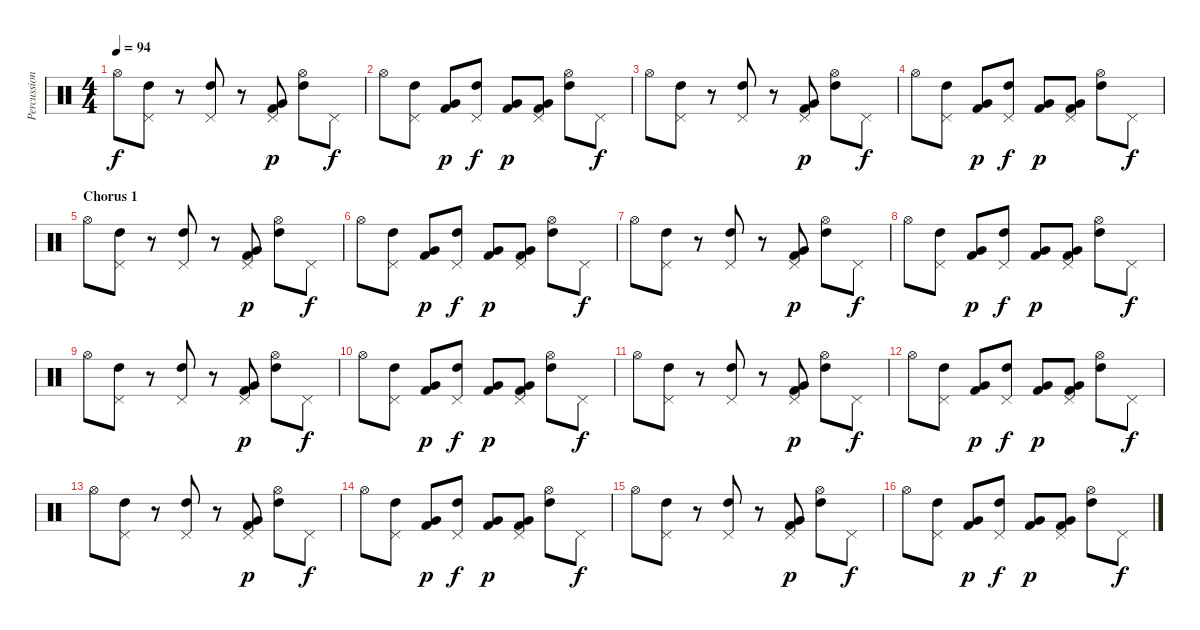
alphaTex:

\track ("Percussion" "Percussion") {instrument percussion}
\staff {score}
\articulation defaults
\ts (4 4)
\tempo 94
\clef neutral
\ks c "Hi-Hat (open)".8{dy f}
("Pedal Hi-Hat (hit)" "High Tom (hit)").8 r.8 ("Pedal Hi-Hat (hit)" "High Tom (hit)").8 r.8 ("Pedal Hi-Hat (hit)" "Very Low Tom (hit)" "Kick (hit) 2").8{dy p} ("Hi-Hat (open)" "High Tom (hit)").8 "Pedal Hi-Hat (hit)".8{dy f} |
"Hi-Hat (open)".8 ("Pedal Hi-Hat (hit)" "High Tom (hit)").8 ("Very Low Tom (hit)" "Kick (hit) 2").8{dy p} ("Pedal Hi-Hat (hit)" "High Tom (hit)").8{dy f} ("Very Low Tom (hit)" "Kick (hit) 2").8{dy p} ("Pedal Hi-Hat (hit)" "Very Low Tom (hit)" "Kick (hit) 2").8 ("Hi-Hat (open)" "High Tom (hit)").8 "Pedal Hi-Hat (hit)".8{dy f} |
"Hi-Hat (open)".8 ("Pedal Hi-Hat (hit)" "High Tom (hit)").8 r.8 ("Pedal Hi-Hat (hit)" "High Tom (hit)").8 r.8 ("Pedal Hi-Hat (hit)" "Very Low Tom (hit)" "Kick (hit) 2").8{dy p} ("Hi-Hat (open)" "High Tom (hit)").8 "Pedal Hi-Hat (hit)".8{dy f} |
"Hi-Hat (open)".8 ("Pedal Hi-Hat (hit)" "High Tom (hit)").8 ("Very Low Tom (hit)" "Kick (hit) 2").8{dy p} ("Pedal Hi-Hat (hit)" "High Tom (hit)").8{dy f} ("Very Low Tom (hit)" "Kick (hit) 2").8{dy p} ("Pedal Hi-Hat (hit)" "Very Low Tom (hit)" "Kick (hit) 2").8 ("Hi-Hat (open)" "High Tom (hit)").8 "Pedal Hi-Hat (hit)".8{dy f} |
\section ("" "Chorus 1")
"Hi-Hat (open)".8 ("Pedal Hi-Hat (hit)" "High Tom (hit)").8 r.8 ("Pedal Hi-Hat (hit)" "High Tom (hit)").8 r.8 ("Pedal Hi-Hat (hit)" "Very Low Tom (hit)" "Kick (hit) 2").8{dy p} ("Hi-Hat (open)" "High Tom (hit)").8 "Pedal Hi-Hat (hit)".8{dy f} |
"Hi-Hat (open)".8 ("Pedal Hi-Hat (hit)" "High Tom (hit)").8 ("Very Low Tom (hit)" "Kick (hit) 2").8{dy p} ("Pedal Hi-Hat (hit)" "High Tom (hit)").8{dy f} ("Very Low Tom (hit)" "Kick (hit) 2").8{dy p} ("Pedal Hi-Hat (hit)" "Very Low Tom (hit)" "Kick (hit) 2").8 ("Hi-Hat (open)" "High Tom (hit)").8 "Pedal Hi-Hat (hit)".8{dy f} |
"Hi-Hat (open)".8 ("Pedal Hi-Hat (hit)" "High Tom (hit)").8 r.8 ("Pedal Hi-Hat (hit)" "High Tom (hit)").8 r.8 ("Pedal Hi-Hat (hit)" "Very Low Tom (hit)" "Kick (hit) 2").8{dy p} ("Hi-Hat (open)" "High Tom (hit)").8 "Pedal Hi-Hat (hit)".8{dy f} |
"Hi-Hat (open)".8 ("Pedal Hi-Hat (hit)" "High Tom (hit)").8 ("Very Low Tom (hit)" "Kick (hit) 2").8{dy p} ("Pedal Hi-Hat (hit)" "High Tom (hit)").8{dy f} ("Very Low Tom (hit)" "Kick (hit) 2").8{dy p} ("Pedal Hi-Hat (hit)" "Very Low Tom (hit)" "Kick (hit) 2").8 ("Hi-Hat (open)" "High Tom (hit)").8 "Pedal Hi-Hat (hit)".8{dy f} |
"Hi-Hat (open)".8 ("Pedal Hi-Hat (hit)" "High Tom (hit)").8 r.8 ("Pedal Hi-Hat (hit)" "High Tom (hit)").8 r.8 ("Pedal Hi-Hat (hit)" "Very Low Tom (hit)" "Kick (hit) 2").8{dy p} ("Hi-Hat (open)" "High Tom (hit)").8 "Pedal Hi-Hat (hit)".8{dy f} |
"Hi-Hat (open)".8 ("Pedal Hi-Hat (hit)" "High Tom (hit)").8 ("Very Low Tom (hit)" "Kick (hit) 2").8{dy p} ("Pedal Hi-Hat (hit)" "High Tom (hit)").8{dy f} ("Very Low Tom (hit)" "Kick (hit) 2").8{dy p} ("Pedal Hi-Hat (hit)" "Very Low Tom (hit)" "Kick (hit) 2").8 ("Hi-Hat (open)" "High Tom (hit)").8 "Pedal Hi-Hat (hit)".8{dy f} |
"Hi-Hat (open)".8 ("Pedal Hi-Hat (hit)" "High Tom (hit)").8 r.8 ("Pedal Hi-Hat (hit)" "High Tom (hit)").8 r.8 ("Pedal Hi-Hat (hit)" "Very Low Tom (hit)" "Kick (hit) 2").8{dy p} ("Hi-Hat (open)" "High Tom (hit)").8 "Pedal Hi-Hat (hit)".8{dy f} |
"Hi-Hat (open)".8 ("Pedal Hi-Hat (hit)" "High Tom (hit)").8 ("Very Low Tom (hit)" "Kick (hit) 2").8{dy p} ("Pedal Hi-Hat (hit)" "High Tom (hit)").8{dy f} ("Very Low Tom (hit)" "Kick (hit) 2").8{dy p} ("Pedal Hi-Hat (hit)" "Very Low Tom (hit)" "Kick (hit) 2").8 ("Hi-Hat (open)" "High Tom (hit)").8 "Pedal Hi-Hat (hit)".8{dy f} |
"Hi-Hat (open)".8 ("Pedal Hi-Hat (hit)" "High Tom (hit)").8 r.8 ("Pedal Hi-Hat (hit)" "High Tom (hit)").8 r.8 ("Pedal Hi-Hat (hit)" "Very Low Tom (hit)" "Kick (hit) 2").8{dy p} ("Hi-Hat (open)" "High Tom (hit)").8 "Pedal Hi-Hat (hit)".8{dy f} |
"Hi-Hat (open)".8 ("Pedal Hi-Hat (hit)" "High Tom (hit)").8 ("Very Low Tom (hit)" "Kick (hit) 2").8{dy p} ("Pedal Hi-Hat (hit)" "High Tom (hit)").8{dy f} ("Very Low Tom (hit)" "Kick (hit) 2").8{dy p} ("Pedal Hi-Hat (hit)" "Very Low Tom (hit)" "Kick (hit) 2").8 ("Hi-Hat (open)" "High Tom (hit)").8 "Pedal Hi-Hat (hit)".8{dy f} |
"Hi-Hat (open)".8 ("Pedal Hi-Hat (hit)" "High Tom (hit)").8 r.8 ("Pedal Hi-Hat (hit)" "High Tom (hit)").8 r.8 ("Pedal Hi-Hat (hit)" "Very Low Tom (hit)" "Kick (hit) 2").8{dy p} ("Hi-Hat (open)" "High Tom (hit)").8 "Pedal Hi-Hat (hit)".8{dy f} |
"Hi-Hat (open)".8 ("Pedal Hi-Hat (hit)" "High Tom (hit)").8 ("Very Low Tom (hit)" "Kick (hit) 2").8{dy p} ("Pedal Hi-Hat (hit)" "High Tom (hit)").8{dy f} ("Very Low Tom (hit)" "Kick (hit) 2").8{dy p} ("Pedal Hi-Hat (hit)" "Very Low Tom (hit)" "Kick (hit) 2").8 ("Hi-Hat (open)" "High Tom (hit)").8 "Pedal Hi-Hat (hit)".8{dy f}
